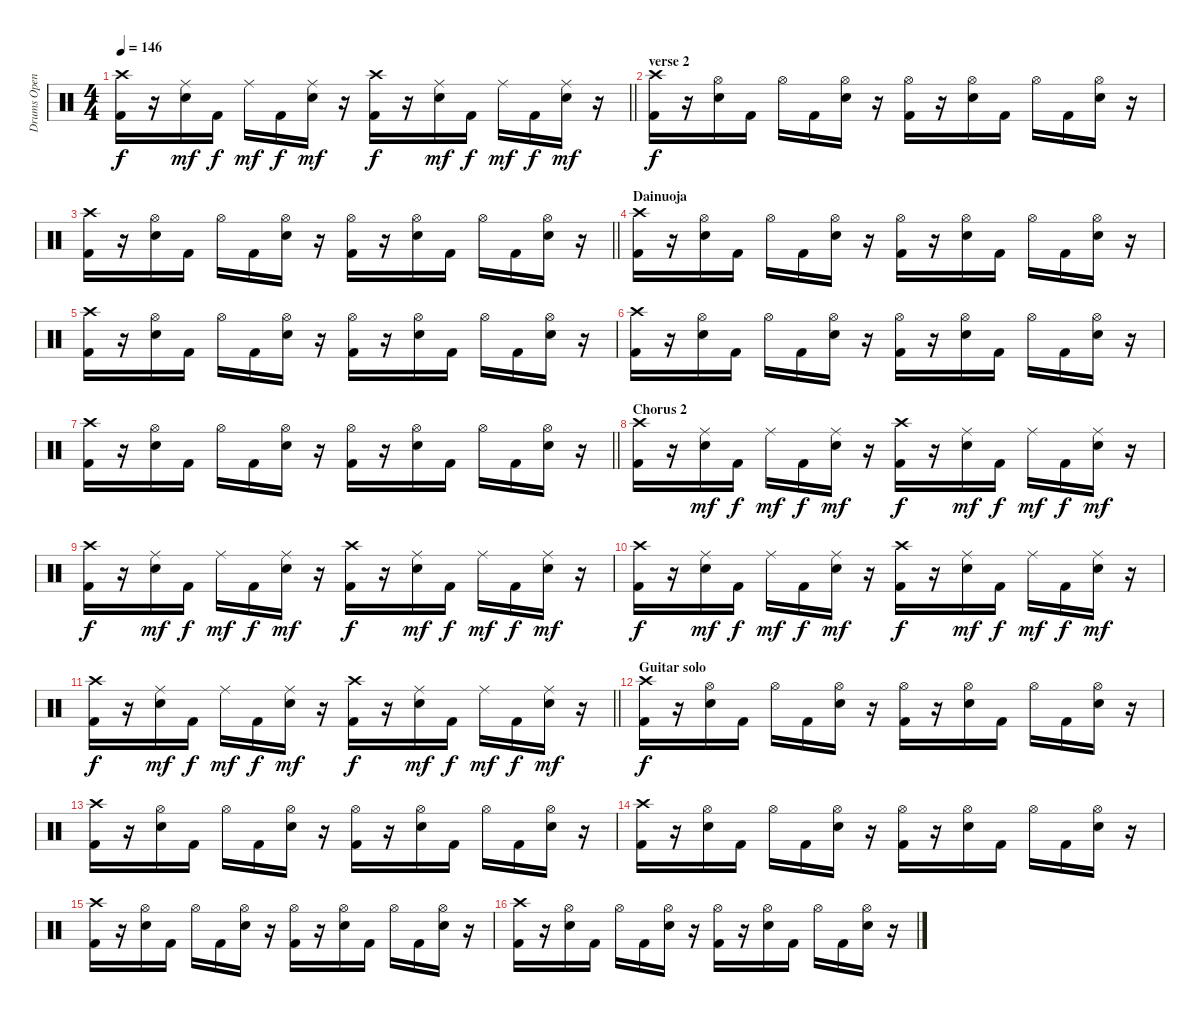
\track ("Drums Open HH" "Drums Open") {instrument percussion}
\staff {score}
\articulation defaults
\ts (4 4)
\tempo 146
\clef neutral
\barLineRight lightlight
\ks c
("Crash high (hit)" "Kick (hit) 2").16{dy f} r.16 ("Ride (middle)" "Snare (hit) 2").16{dy mf} "Kick (hit) 2".16{dy f} "Ride (middle)".16{dy mf} "Kick (hit) 2".16{dy f} ("Ride (middle)" "Snare (hit) 2").16{dy mf} r.16 ("Crash high (hit)" "Kick (hit) 2").16{dy f} r.16 ("Ride (middle)" "Snare (hit) 2").16{dy mf} "Kick (hit) 2".16{dy f} "Ride (middle)".16{dy mf} "Kick (hit) 2".16{dy f} ("Ride (middle)" "Snare (hit) 2").16{dy mf} r.16 |
\section ("" "verse 2")
("Crash high (hit)" "Kick (hit) 2").16{dy f} r.16 ("Hi-Hat (open)" "Snare (hit) 2").16 "Kick (hit) 2".16 "Hi-Hat (open)".16 "Kick (hit) 2".16 ("Hi-Hat (open)" "Snare (hit) 2").16 r.16 ("Hi-Hat (open)" "Kick (hit) 2").16 r.16 ("Hi-Hat (open)" "Snare (hit) 2").16 "Kick (hit) 2".16 "Hi-Hat (open)".16 "Kick (hit) 2".16 ("Hi-Hat (open)" "Snare (hit) 2").16 r.16 |
\barLineRight lightlight
("Crash high (hit)" "Kick (hit) 2").16 r.16 ("Hi-Hat (open)" "Snare (hit) 2").16 "Kick (hit) 2".16 "Hi-Hat (open)".16 "Kick (hit) 2".16 ("Hi-Hat (open)" "Snare (hit) 2").16 r.16 ("Hi-Hat (open)" "Kick (hit) 2").16 r.16 ("Hi-Hat (open)" "Snare (hit) 2").16 "Kick (hit) 2".16 "Hi-Hat (open)".16 "Kick (hit) 2".16 ("Hi-Hat (open)" "Snare (hit) 2").16 r.16 |
\section ("" "Dainuoja")
("Crash high (hit)" "Kick (hit) 2").16 r.16 ("Hi-Hat (open)" "Snare (hit) 2").16 "Kick (hit) 2".16 "Hi-Hat (open)".16 "Kick (hit) 2".16 ("Hi-Hat (open)" "Snare (hit) 2").16 r.16 ("Hi-Hat (open)" "Kick (hit) 2").16 r.16 ("Hi-Hat (open)" "Snare (hit) 2").16 "Kick (hit) 2".16 "Hi-Hat (open)".16 "Kick (hit) 2".16 ("Hi-Hat (open)" "Snare (hit) 2").16 r.16 |
("Crash high (hit)" "Kick (hit) 2").16 r.16 ("Hi-Hat (open)" "Snare (hit) 2").16 "Kick (hit) 2".16 "Hi-Hat (open)".16 "Kick (hit) 2".16 ("Hi-Hat (open)" "Snare (hit) 2").16 r.16 ("Hi-Hat (open)" "Kick (hit) 2").16 r.16 ("Hi-Hat (open)" "Snare (hit) 2").16 "Kick (hit) 2".16 "Hi-Hat (open)".16 "Kick (hit) 2".16 ("Hi-Hat (open)" "Snare (hit) 2").16 r.16 |
("Crash high (hit)" "Kick (hit) 2").16 r.16 ("Hi-Hat (open)" "Snare (hit) 2").16 "Kick (hit) 2".16 "Hi-Hat (open)".16 "Kick (hit) 2".16 ("Hi-Hat (open)" "Snare (hit) 2").16 r.16 ("Hi-Hat (open)" "Kick (hit) 2").16 r.16 ("Hi-Hat (open)" "Snare (hit) 2").16 "Kick (hit) 2".16 "Hi-Hat (open)".16 "Kick (hit) 2".16 ("Hi-Hat (open)" "Snare (hit) 2").16 r.16 |
\barLineRight lightlight
("Crash high (hit)" "Kick (hit) 2").16 r.16 ("Hi-Hat (open)" "Snare (hit) 2").16 "Kick (hit) 2".16 "Hi-Hat (open)".16 "Kick (hit) 2".16 ("Hi-Hat (open)" "Snare (hit) 2").16 r.16 ("Hi-Hat (open)" "Kick (hit) 2").16 r.16 ("Hi-Hat (open)" "Snare (hit) 2").16 "Kick (hit) 2".16 "Hi-Hat (open)".16 "Kick (hit) 2".16 ("Hi-Hat (open)" "Snare (hit) 2").16 r.16 |
\section ("" "Chorus 2")
("Crash high (hit)" "Kick (hit) 2").16 r.16 ("Ride (middle)" "Snare (hit) 2").16{dy mf} "Kick (hit) 2".16{dy f} "Ride (middle)".16{dy mf} "Kick (hit) 2".16{dy f} ("Ride (middle)" "Snare (hit) 2").16{dy mf} r.16 ("Crash high (hit)" "Kick (hit) 2").16{dy f} r.16 ("Ride (middle)" "Snare (hit) 2").16{dy mf} "Kick (hit) 2".16{dy f} "Ride (middle)".16{dy mf} "Kick (hit) 2".16{dy f} ("Ride (middle)" "Snare (hit) 2").16{dy mf} r.16 |
("Crash high (hit)" "Kick (hit) 2").16{dy f} r.16 ("Ride (middle)" "Snare (hit) 2").16{dy mf} "Kick (hit) 2".16{dy f} "Ride (middle)".16{dy mf} "Kick (hit) 2".16{dy f} ("Ride (middle)" "Snare (hit) 2").16{dy mf} r.16 ("Crash high (hit)" "Kick (hit) 2").16{dy f} r.16 ("Ride (middle)" "Snare (hit) 2").16{dy mf} "Kick (hit) 2".16{dy f} "Ride (middle)".16{dy mf} "Kick (hit) 2".16{dy f} ("Ride (middle)" "Snare (hit) 2").16{dy mf} r.16 |
("Crash high (hit)" "Kick (hit) 2").16{dy f} r.16 ("Ride (middle)" "Snare (hit) 2").16{dy mf} "Kick (hit) 2".16{dy f} "Ride (middle)".16{dy mf} "Kick (hit) 2".16{dy f} ("Ride (middle)" "Snare (hit) 2").16{dy mf} r.16 ("Crash high (hit)" "Kick (hit) 2").16{dy f} r.16 ("Ride (middle)" "Snare (hit) 2").16{dy mf} "Kick (hit) 2".16{dy f} "Ride (middle)".16{dy mf} "Kick (hit) 2".16{dy f} ("Ride (middle)" "Snare (hit) 2").16{dy mf} r.16 |
\barLineRight lightlight
("Crash high (hit)" "Kick (hit) 2").16{dy f} r.16 ("Ride (middle)" "Snare (hit) 2").16{dy mf} "Kick (hit) 2".16{dy f} "Ride (middle)".16{dy mf} "Kick (hit) 2".16{dy f} ("Ride (middle)" "Snare (hit) 2").16{dy mf} r.16 ("Crash high (hit)" "Kick (hit) 2").16{dy f} r.16 ("Ride (middle)" "Snare (hit) 2").16{dy mf} "Kick (hit) 2".16{dy f} "Ride (middle)".16{dy mf} "Kick (hit) 2".16{dy f} ("Ride (middle)" "Snare (hit) 2").16{dy mf} r.16 |
\section ("" "Guitar solo")
("Crash high (hit)" "Kick (hit) 2").16{dy f} r.16 ("Hi-Hat (open)" "Snare (hit) 2").16 "Kick (hit) 2".16 "Hi-Hat (open)".16 "Kick (hit) 2".16 ("Hi-Hat (open)" "Snare (hit) 2").16 r.16 ("Hi-Hat (open)" "Kick (hit) 2").16 r.16 ("Hi-Hat (open)" "Snare (hit) 2").16 "Kick (hit) 2".16 "Hi-Hat (open)".16 "Kick (hit) 2".16 ("Hi-Hat (open)" "Snare (hit) 2").16 r.16 |
("Crash high (hit)" "Kick (hit) 2").16 r.16 ("Hi-Hat (open)" "Snare (hit) 2").16 "Kick (hit) 2".16 "Hi-Hat (open)".16 "Kick (hit) 2".16 ("Hi-Hat (open)" "Snare (hit) 2").16 r.16 ("Hi-Hat (open)" "Kick (hit) 2").16 r.16 ("Hi-Hat (open)" "Snare (hit) 2").16 "Kick (hit) 2".16 "Hi-Hat (open)".16 "Kick (hit) 2".16 ("Hi-Hat (open)" "Snare (hit) 2").16 r.16 |
("Crash high (hit)" "Kick (hit) 2").16 r.16 ("Hi-Hat (open)" "Snare (hit) 2").16 "Kick (hit) 2".16 "Hi-Hat (open)".16 "Kick (hit) 2".16 ("Hi-Hat (open)" "Snare (hit) 2").16 r.16 ("Hi-Hat (open)" "Kick (hit) 2").16 r.16 ("Hi-Hat (open)" "Snare (hit) 2").16 "Kick (hit) 2".16 "Hi-Hat (open)".16 "Kick (hit) 2".16 ("Hi-Hat (open)" "Snare (hit) 2").16 r.16 |
("Crash high (hit)" "Kick (hit) 2").16 r.16 ("Hi-Hat (open)" "Snare (hit) 2").16 "Kick (hit) 2".16 "Hi-Hat (open)".16 "Kick (hit) 2".16 ("Hi-Hat (open)" "Snare (hit) 2").16 r.16 ("Hi-Hat (open)" "Kick (hit) 2").16 r.16 ("Hi-Hat (open)" "Snare (hit) 2").16 "Kick (hit) 2".16 "Hi-Hat (open)".16 "Kick (hit) 2".16 ("Hi-Hat (open)" "Snare (hit) 2").16 r.16 |
("Crash high (hit)" "Kick (hit) 2").16 r.16 ("Hi-Hat (open)" "Snare (hit) 2").16 "Kick (hit) 2".16 "Hi-Hat (open)".16 "Kick (hit) 2".16 ("Hi-Hat (open)" "Snare (hit) 2").16 r.16 ("Hi-Hat (open)" "Kick (hit) 2").16 r.16 ("Hi-Hat (open)" "Snare (hit) 2").16 "Kick (hit) 2".16 "Hi-Hat (open)".16 "Kick (hit) 2".16 ("Hi-Hat (open)" "Snare (hit) 2").16 r.16
